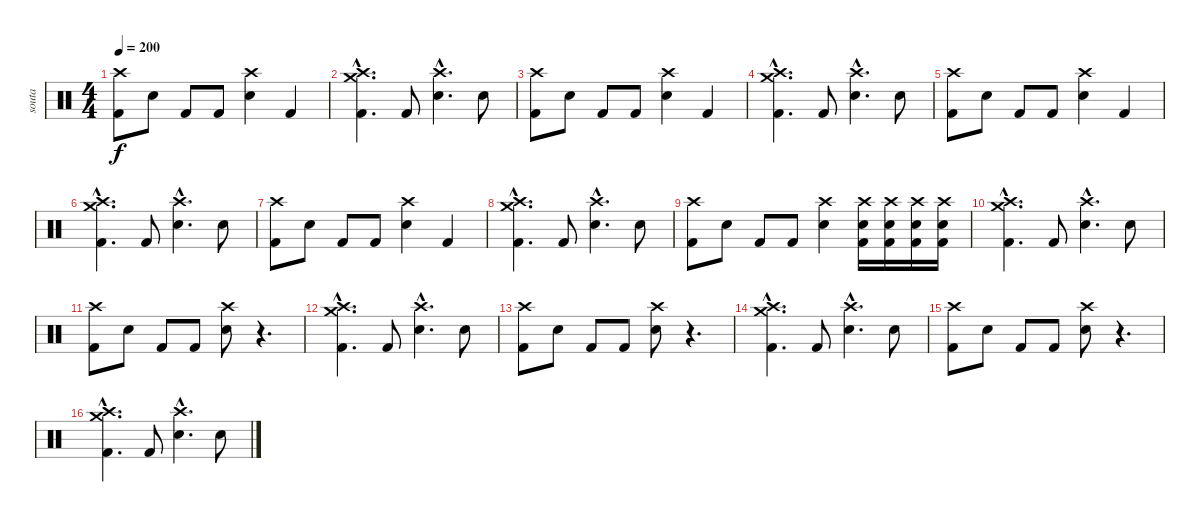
\track ("souta" "souta") {instrument percussion}
\staff {score}
\articulation defaults
\ts (4 4)
\tempo 200
\clef neutral
\ks c
("Crash high (hit)" "Kick (hit) 2").8{dy f} "Snare (hit) 2".8 "Kick (hit) 2".8 "Kick (hit) 2".8 ("Crash high (hit)" "Snare (hit) 2").4 "Kick (hit) 2".4 |
("Crash high (hit)"{hac} "Kick (hit) 2"{hac} "Crash medium (hit)"{hac}).4{d} "Kick (hit) 2".8 ("Crash high (hit)"{hac} "Snare (hit) 2"{hac}).4{d} "Snare (hit) 2".8 |
("Crash high (hit)" "Kick (hit) 2").8 "Snare (hit) 2".8 "Kick (hit) 2".8 "Kick (hit) 2".8 ("Crash high (hit)" "Snare (hit) 2").4 "Kick (hit) 2".4 |
("Crash high (hit)"{hac} "Kick (hit) 2"{hac} "Crash medium (hit)"{hac}).4{d} "Kick (hit) 2".8 ("Crash high (hit)"{hac} "Snare (hit) 2"{hac}).4{d} "Snare (hit) 2".8 |
("Crash high (hit)" "Kick (hit) 2").8 "Snare (hit) 2".8 "Kick (hit) 2".8 "Kick (hit) 2".8 ("Crash high (hit)" "Snare (hit) 2").4 "Kick (hit) 2".4 |
("Crash high (hit)"{hac} "Kick (hit) 2"{hac} "Crash medium (hit)"{hac}).4{d} "Kick (hit) 2".8 ("Crash high (hit)"{hac} "Snare (hit) 2"{hac}).4{d} "Snare (hit) 2".8 |
("Crash high (hit)" "Kick (hit) 2").8 "Snare (hit) 2".8 "Kick (hit) 2".8 "Kick (hit) 2".8 ("Crash high (hit)" "Snare (hit) 2").4 "Kick (hit) 2".4 |
("Crash high (hit)"{hac} "Kick (hit) 2"{hac} "Crash medium (hit)"{hac}).4{d} "Kick (hit) 2".8 ("Crash high (hit)"{hac} "Snare (hit) 2"{hac}).4{d} "Snare (hit) 2".8 |
("Crash high (hit)" "Kick (hit) 2").8 "Snare (hit) 2".8 "Kick (hit) 2".8 "Kick (hit) 2".8 ("Crash high (hit)" "Snare (hit) 2").4 ("Crash high (hit)" "Kick (hit) 2" "Snare (hit) 2").16 ("Crash high (hit)" "Kick (hit) 2" "Snare (hit) 2").16 ("Crash high (hit)" "Kick (hit) 2" "Snare (hit) 2").16 ("Crash high (hit)" "Kick (hit) 2" "Snare (hit) 2").16 |
("Crash high (hit)"{hac} "Kick (hit) 2"{hac} "Crash medium (hit)"{hac}).4{d} "Kick (hit) 2".8 ("Crash high (hit)"{hac} "Snare (hit) 2"{hac}).4{d} "Snare (hit) 2".8 |
("Crash high (hit)" "Kick (hit) 2").8 "Snare (hit) 2".8 "Kick (hit) 2".8 "Kick (hit) 2".8 ("Crash high (hit)" "Snare (hit) 2").8 r.4{d} |
("Crash high (hit)"{hac} "Kick (hit) 2"{hac} "Crash medium (hit)"{hac}).4{d} "Kick (hit) 2".8 ("Crash high (hit)"{hac} "Snare (hit) 2"{hac}).4{d} "Snare (hit) 2".8 |
("Crash high (hit)" "Kick (hit) 2").8 "Snare (hit) 2".8 "Kick (hit) 2".8 "Kick (hit) 2".8 ("Crash high (hit)" "Snare (hit) 2").8 r.4{d} |
("Crash high (hit)"{hac} "Kick (hit) 2"{hac} "Crash medium (hit)"{hac}).4{d} "Kick (hit) 2".8 ("Crash high (hit)"{hac} "Snare (hit) 2"{hac}).4{d} "Snare (hit) 2".8 |
("Crash high (hit)" "Kick (hit) 2").8 "Snare (hit) 2".8 "Kick (hit) 2".8 "Kick (hit) 2".8 ("Crash high (hit)" "Snare (hit) 2").8 r.4{d} |
("Crash high (hit)"{hac} "Kick (hit) 2"{hac} "Crash medium (hit)"{hac}).4{d} "Kick (hit) 2".8 ("Crash high (hit)"{hac} "Snare (hit) 2"{hac}).4{d} "Snare (hit) 2".8
